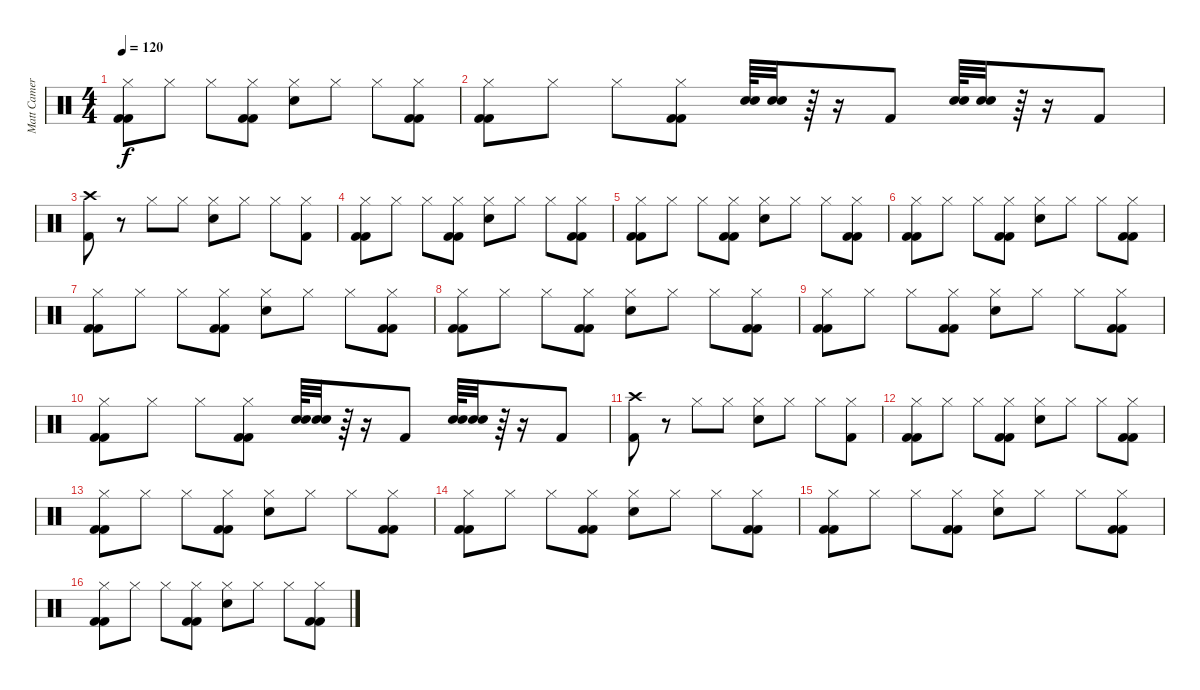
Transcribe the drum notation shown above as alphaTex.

\track ("Matt Cameron" "Matt Camer") {instrument percussion}
\staff {score}
\articulation defaults
\ts (4 4)
\tempo 120
\clef neutral
\ks c
("Hi-Hat (closed)" "Kick (hit) 2" "Kick (hit) 2").8{dy f} "Hi-Hat (closed)".8 "Hi-Hat (closed)".8 ("Hi-Hat (closed)" "Kick (hit) 2" "Kick (hit) 2").8 ("Hi-Hat (closed)" "Electric Snare (hit)").8 "Hi-Hat (closed)".8 "Hi-Hat (closed)".8 ("Hi-Hat (closed)" "Kick (hit) 2" "Kick (hit) 2").8 |
("Hi-Hat (closed)" "Kick (hit) 2" "Kick (hit) 2").8 "Hi-Hat (closed)".8 "Hi-Hat (closed)".8 ("Hi-Hat (closed)" "Kick (hit) 2" "Kick (hit) 2").8 ("Electric Snare (hit)" "Electric Snare (hit)").64 ("Electric Snare (hit)" "Electric Snare (hit)").32 r.64 r.16 "Kick (hit) 2".8 ("Electric Snare (hit)" "Electric Snare (hit)").64 ("Electric Snare (hit)" "Electric Snare (hit)").32 r.64 r.16 "Kick (hit) 2".8 |
("Crash high (hit)" "Kick (hit) 2").8 r.8 "Hi-Hat (closed)".8 "Hi-Hat (closed)".8 ("Hi-Hat (closed)" "Electric Snare (hit)").8 "Hi-Hat (closed)".8 "Hi-Hat (closed)".8 ("Hi-Hat (closed)" "Kick (hit) 2").8 |
("Hi-Hat (closed)" "Kick (hit) 2" "Kick (hit) 2").8 "Hi-Hat (closed)".8 "Hi-Hat (closed)".8 ("Hi-Hat (closed)" "Kick (hit) 2" "Kick (hit) 2").8 ("Hi-Hat (closed)" "Electric Snare (hit)").8 "Hi-Hat (closed)".8 "Hi-Hat (closed)".8 ("Hi-Hat (closed)" "Kick (hit) 2" "Kick (hit) 2").8 |
("Hi-Hat (closed)" "Kick (hit) 2" "Kick (hit) 2").8 "Hi-Hat (closed)".8 "Hi-Hat (closed)".8 ("Hi-Hat (closed)" "Kick (hit) 2" "Kick (hit) 2").8 ("Hi-Hat (closed)" "Electric Snare (hit)").8 "Hi-Hat (closed)".8 "Hi-Hat (closed)".8 ("Hi-Hat (closed)" "Kick (hit) 2" "Kick (hit) 2").8 |
("Hi-Hat (closed)" "Kick (hit) 2" "Kick (hit) 2").8 "Hi-Hat (closed)".8 "Hi-Hat (closed)".8 ("Hi-Hat (closed)" "Kick (hit) 2" "Kick (hit) 2").8 ("Hi-Hat (closed)" "Electric Snare (hit)").8 "Hi-Hat (closed)".8 "Hi-Hat (closed)".8 ("Hi-Hat (closed)" "Kick (hit) 2" "Kick (hit) 2").8 |
("Hi-Hat (closed)" "Kick (hit) 2" "Kick (hit) 2").8 "Hi-Hat (closed)".8 "Hi-Hat (closed)".8 ("Hi-Hat (closed)" "Kick (hit) 2" "Kick (hit) 2").8 ("Hi-Hat (closed)" "Electric Snare (hit)").8 "Hi-Hat (closed)".8 "Hi-Hat (closed)".8 ("Hi-Hat (closed)" "Kick (hit) 2" "Kick (hit) 2").8 |
("Hi-Hat (closed)" "Kick (hit) 2" "Kick (hit) 2").8 "Hi-Hat (closed)".8 "Hi-Hat (closed)".8 ("Hi-Hat (closed)" "Kick (hit) 2" "Kick (hit) 2").8 ("Hi-Hat (closed)" "Electric Snare (hit)").8 "Hi-Hat (closed)".8 "Hi-Hat (closed)".8 ("Hi-Hat (closed)" "Kick (hit) 2" "Kick (hit) 2").8 |
("Hi-Hat (closed)" "Kick (hit) 2" "Kick (hit) 2").8 "Hi-Hat (closed)".8 "Hi-Hat (closed)".8 ("Hi-Hat (closed)" "Kick (hit) 2" "Kick (hit) 2").8 ("Hi-Hat (closed)" "Electric Snare (hit)").8 "Hi-Hat (closed)".8 "Hi-Hat (closed)".8 ("Hi-Hat (closed)" "Kick (hit) 2" "Kick (hit) 2").8 |
("Hi-Hat (closed)" "Kick (hit) 2" "Kick (hit) 2").8{volume 16} "Hi-Hat (closed)".8 "Hi-Hat (closed)".8 ("Hi-Hat (closed)" "Kick (hit) 2" "Kick (hit) 2").8 ("Electric Snare (hit)" "Electric Snare (hit)").64 ("Electric Snare (hit)" "Electric Snare (hit)").32 r.64 r.16 "Kick (hit) 2".8 ("Electric Snare (hit)" "Electric Snare (hit)").64 ("Electric Snare (hit)" "Electric Snare (hit)").32 r.64 r.16 "Kick (hit) 2".8 |
("Crash high (hit)" "Kick (hit) 2").8 r.8 "Hi-Hat (closed)".8 "Hi-Hat (closed)".8 ("Hi-Hat (closed)" "Electric Snare (hit)").8 "Hi-Hat (closed)".8 "Hi-Hat (closed)".8 ("Hi-Hat (closed)" "Kick (hit) 2").8 |
("Hi-Hat (closed)" "Kick (hit) 2" "Kick (hit) 2").8 "Hi-Hat (closed)".8 "Hi-Hat (closed)".8 ("Hi-Hat (closed)" "Kick (hit) 2" "Kick (hit) 2").8 ("Hi-Hat (closed)" "Electric Snare (hit)").8 "Hi-Hat (closed)".8 "Hi-Hat (closed)".8 ("Hi-Hat (closed)" "Kick (hit) 2" "Kick (hit) 2").8 |
("Hi-Hat (closed)" "Kick (hit) 2" "Kick (hit) 2").8 "Hi-Hat (closed)".8 "Hi-Hat (closed)".8 ("Hi-Hat (closed)" "Kick (hit) 2" "Kick (hit) 2").8 ("Hi-Hat (closed)" "Electric Snare (hit)").8 "Hi-Hat (closed)".8 "Hi-Hat (closed)".8 ("Hi-Hat (closed)" "Kick (hit) 2" "Kick (hit) 2").8 |
("Hi-Hat (closed)" "Kick (hit) 2" "Kick (hit) 2").8 "Hi-Hat (closed)".8 "Hi-Hat (closed)".8 ("Hi-Hat (closed)" "Kick (hit) 2" "Kick (hit) 2").8 ("Hi-Hat (closed)" "Electric Snare (hit)").8 "Hi-Hat (closed)".8 "Hi-Hat (closed)".8 ("Hi-Hat (closed)" "Kick (hit) 2" "Kick (hit) 2").8 |
("Hi-Hat (closed)" "Kick (hit) 2" "Kick (hit) 2").8 "Hi-Hat (closed)".8 "Hi-Hat (closed)".8 ("Hi-Hat (closed)" "Kick (hit) 2" "Kick (hit) 2").8 ("Hi-Hat (closed)" "Electric Snare (hit)").8 "Hi-Hat (closed)".8 "Hi-Hat (closed)".8 ("Hi-Hat (closed)" "Kick (hit) 2" "Kick (hit) 2").8 |
("Hi-Hat (closed)" "Kick (hit) 2" "Kick (hit) 2").8 "Hi-Hat (closed)".8 "Hi-Hat (closed)".8 ("Hi-Hat (closed)" "Kick (hit) 2" "Kick (hit) 2").8 ("Hi-Hat (closed)" "Electric Snare (hit)").8 "Hi-Hat (closed)".8 "Hi-Hat (closed)".8 ("Hi-Hat (closed)" "Kick (hit) 2" "Kick (hit) 2").8
